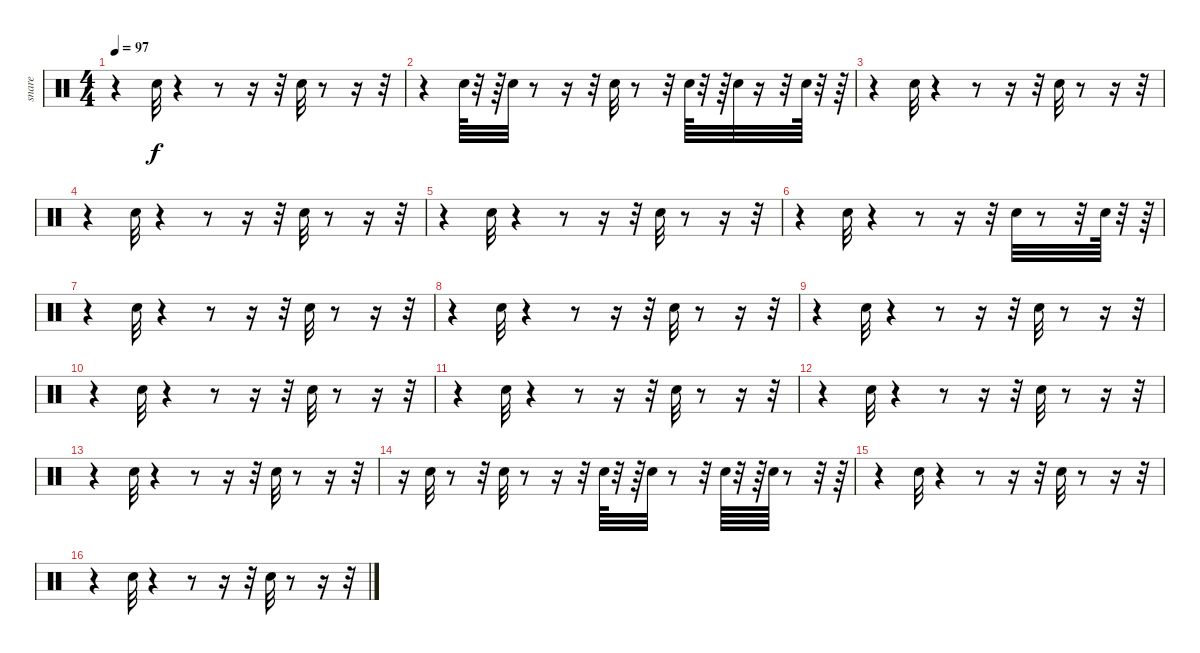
\track ("snare" "snare") {instrument percussion}
\staff {score}
\articulation defaults
\ts (4 4)
\tempo 97
\clef neutral
\ks c
r.4{dy f} "Electric Snare (hit)".32 r.4 r.8 r.16 r.32 "Electric Snare (hit)".32 r.8 r.16 r.32 |
r.4 "Electric Snare (hit)".64 r.32 r.64 "Electric Snare (hit)".32 r.8 r.16 r.32 "Electric Snare (hit)".32 r.8 r.32 "Electric Snare (hit)".64 r.32 r.64 "Electric Snare (hit)".32 r.16 r.32 "Electric Snare (hit)".64 r.32 r.64 |
r.4 "Electric Snare (hit)".32 r.4 r.8 r.16 r.32 "Electric Snare (hit)".32 r.8 r.16 r.32 |
r.4 "Electric Snare (hit)".32 r.4 r.8 r.16 r.32 "Electric Snare (hit)".32 r.8 r.16 r.32 |
r.4 "Electric Snare (hit)".32 r.4 r.8 r.16 r.32 "Electric Snare (hit)".32 r.8 r.16 r.32 |
r.4 "Electric Snare (hit)".32 r.4 r.8 r.16 r.32 "Electric Snare (hit)".32 r.8 r.32 "Electric Snare (hit)".64 r.32 r.64 |
r.4 "Electric Snare (hit)".32 r.4 r.8 r.16 r.32 "Electric Snare (hit)".32 r.8 r.16 r.32 |
r.4 "Electric Snare (hit)".32 r.4 r.8 r.16 r.32 "Electric Snare (hit)".32 r.8 r.16 r.32 |
r.4 "Electric Snare (hit)".32 r.4 r.8 r.16 r.32 "Electric Snare (hit)".32 r.8 r.16 r.32 |
r.4 "Electric Snare (hit)".32 r.4 r.8 r.16 r.32 "Electric Snare (hit)".32 r.8 r.16 r.32 |
r.4 "Electric Snare (hit)".32 r.4 r.8 r.16 r.32 "Electric Snare (hit)".32 r.8 r.16 r.32 |
r.4 "Electric Snare (hit)".32 r.4 r.8 r.16 r.32 "Electric Snare (hit)".32 r.8 r.16 r.32 |
r.4 "Electric Snare (hit)".32 r.4 r.8 r.16 r.32 "Electric Snare (hit)".32 r.8 r.16 r.32 |
r.16 "Electric Snare (hit)".32 r.8 r.32 "Electric Snare (hit)".32 r.8 r.16 r.32 "Electric Snare (hit)".64 r.32 r.64 "Electric Snare (hit)".32 r.8 r.32 "Electric Snare (hit)".64 r.32 r.64 "Electric Snare (hit)".64 r.8 r.32 r.64 |
r.4 "Electric Snare (hit)".32 r.4 r.8 r.16 r.32 "Electric Snare (hit)".32 r.8 r.16 r.32 |
r.4 "Electric Snare (hit)".32 r.4 r.8 r.16 r.32 "Electric Snare (hit)".32 r.8 r.16 r.32
